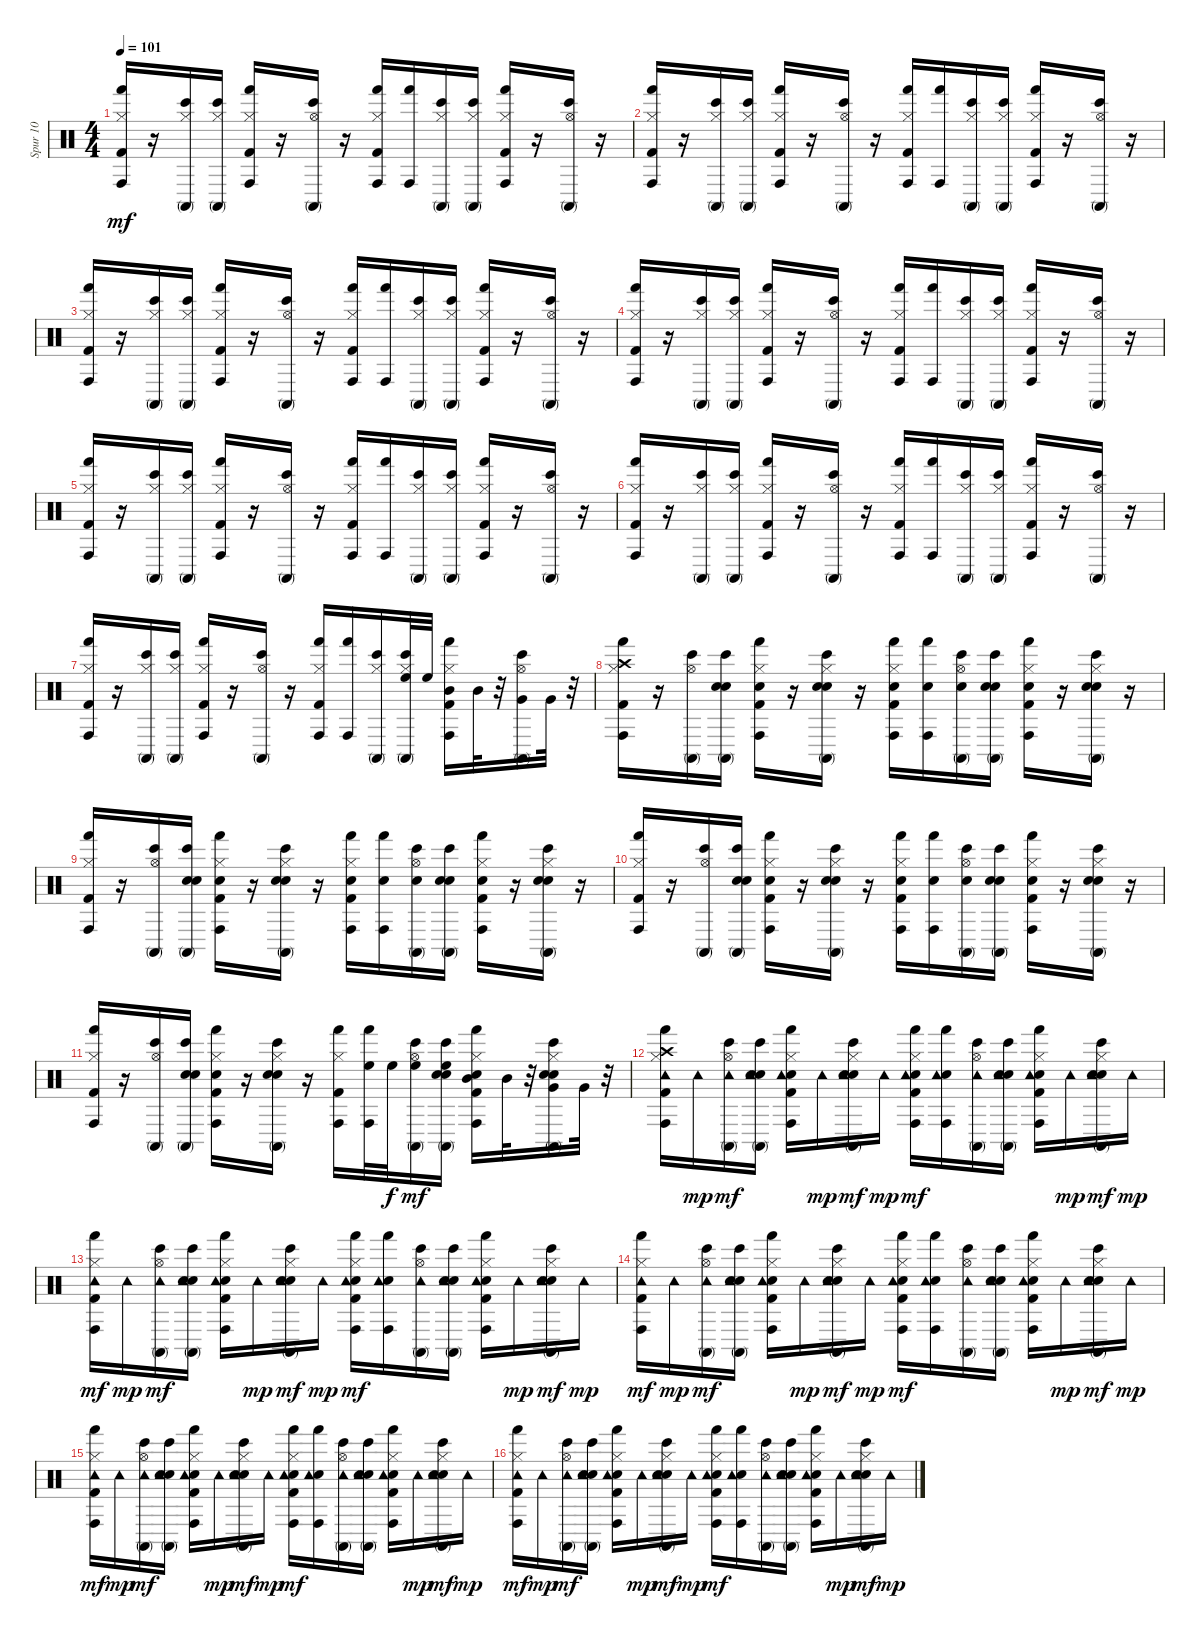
\track ("Spur 10" "Spur 10") {instrument percussion}
\staff {score}
\articulation defaults
\ts (4 4)
\tempo 101
\clef neutral
\ks c
("Kick (hit) 2" "Hi-Hat (closed)" "Hand (hit)" "Conga high (hit)").16{dy mf} r.16 ("Hi-Hat (closed)" "Bongo High (hit)" "Conga high (mute)").16 ("Hi-Hat (closed)" "Bongo High (hit)" "Conga high (mute)").16 ("Kick (hit) 2" "Hi-Hat (closed)" "Hand (hit)" "Conga high (hit)").16 r.16 ("Hi-Hat (open)" "Bongo High (hit)" "Conga high (mute)").16 r.16 ("Kick (hit) 2" "Hi-Hat (closed)" "Hand (hit)" "Conga high (hit)").16 ("Hand (hit)" "Conga high (hit)").16 ("Hi-Hat (closed)" "Bongo High (hit)" "Conga high (mute)").16 ("Hi-Hat (closed)" "Bongo High (hit)" "Conga high (mute)").16 ("Kick (hit) 2" "Hi-Hat (closed)" "Hand (hit)" "Conga high (hit)").16 r.16 ("Hi-Hat (open)" "Bongo High (hit)" "Conga high (mute)").16 r.16 |
("Kick (hit) 2" "Hi-Hat (closed)" "Hand (hit)" "Conga high (hit)").16 r.16 ("Hi-Hat (closed)" "Bongo High (hit)" "Conga high (mute)").16 ("Hi-Hat (closed)" "Bongo High (hit)" "Conga high (mute)").16 ("Kick (hit) 2" "Hi-Hat (closed)" "Hand (hit)" "Conga high (hit)").16 r.16 ("Hi-Hat (open)" "Bongo High (hit)" "Conga high (mute)").16 r.16 ("Kick (hit) 2" "Hi-Hat (closed)" "Hand (hit)" "Conga high (hit)").16 ("Hand (hit)" "Conga high (hit)").16 ("Hi-Hat (closed)" "Bongo High (hit)" "Conga high (mute)").16 ("Hi-Hat (closed)" "Bongo High (hit)" "Conga high (mute)").16 ("Kick (hit) 2" "Hi-Hat (closed)" "Hand (hit)" "Conga high (hit)").16 r.16 ("Hi-Hat (open)" "Bongo High (hit)" "Conga high (mute)").16 r.16 |
("Kick (hit) 2" "Hi-Hat (closed)" "Hand (hit)" "Conga high (hit)").16 r.16 ("Hi-Hat (closed)" "Bongo High (hit)" "Conga high (mute)").16 ("Hi-Hat (closed)" "Bongo High (hit)" "Conga high (mute)").16 ("Kick (hit) 2" "Hi-Hat (closed)" "Hand (hit)" "Conga high (hit)").16 r.16 ("Hi-Hat (open)" "Bongo High (hit)" "Conga high (mute)").16 r.16 ("Kick (hit) 2" "Hi-Hat (closed)" "Hand (hit)" "Conga high (hit)").16 ("Hand (hit)" "Conga high (hit)").16 ("Hi-Hat (closed)" "Bongo High (hit)" "Conga high (mute)").16 ("Hi-Hat (closed)" "Bongo High (hit)" "Conga high (mute)").16 ("Kick (hit) 2" "Hi-Hat (closed)" "Hand (hit)" "Conga high (hit)").16 r.16 ("Hi-Hat (open)" "Bongo High (hit)" "Conga high (mute)").16 r.16 |
("Kick (hit) 2" "Hi-Hat (closed)" "Hand (hit)" "Conga high (hit)").16 r.16 ("Hi-Hat (closed)" "Bongo High (hit)" "Conga high (mute)").16 ("Hi-Hat (closed)" "Bongo High (hit)" "Conga high (mute)").16 ("Kick (hit) 2" "Hi-Hat (closed)" "Hand (hit)" "Conga high (hit)").16 r.16 ("Hi-Hat (open)" "Bongo High (hit)" "Conga high (mute)").16 r.16 ("Kick (hit) 2" "Hi-Hat (closed)" "Hand (hit)" "Conga high (hit)").16 ("Hand (hit)" "Conga high (hit)").16 ("Hi-Hat (closed)" "Bongo High (hit)" "Conga high (mute)").16 ("Hi-Hat (closed)" "Bongo High (hit)" "Conga high (mute)").16 ("Kick (hit) 2" "Hi-Hat (closed)" "Hand (hit)" "Conga high (hit)").16 r.16 ("Hi-Hat (open)" "Bongo High (hit)" "Conga high (mute)").16 r.16 |
("Kick (hit) 2" "Hi-Hat (closed)" "Hand (hit)" "Conga high (hit)").16 r.16 ("Hi-Hat (closed)" "Bongo High (hit)" "Conga high (mute)").16 ("Hi-Hat (closed)" "Bongo High (hit)" "Conga high (mute)").16 ("Kick (hit) 2" "Hi-Hat (closed)" "Hand (hit)" "Conga high (hit)").16 r.16 ("Hi-Hat (open)" "Bongo High (hit)" "Conga high (mute)").16 r.16 ("Kick (hit) 2" "Hi-Hat (closed)" "Hand (hit)" "Conga high (hit)").16 ("Hand (hit)" "Conga high (hit)").16 ("Hi-Hat (closed)" "Bongo High (hit)" "Conga high (mute)").16 ("Hi-Hat (closed)" "Bongo High (hit)" "Conga high (mute)").16 ("Kick (hit) 2" "Hi-Hat (closed)" "Hand (hit)" "Conga high (hit)").16 r.16 ("Hi-Hat (open)" "Bongo High (hit)" "Conga high (mute)").16 r.16 |
("Kick (hit) 2" "Hi-Hat (closed)" "Hand (hit)" "Conga high (hit)").16 r.16 ("Hi-Hat (closed)" "Bongo High (hit)" "Conga high (mute)").16 ("Hi-Hat (closed)" "Bongo High (hit)" "Conga high (mute)").16 ("Kick (hit) 2" "Hi-Hat (closed)" "Hand (hit)" "Conga high (hit)").16 r.16 ("Hi-Hat (open)" "Bongo High (hit)" "Conga high (mute)").16 r.16 ("Kick (hit) 2" "Hi-Hat (closed)" "Hand (hit)" "Conga high (hit)").16 ("Hand (hit)" "Conga high (hit)").16 ("Hi-Hat (closed)" "Bongo High (hit)" "Conga high (mute)").16 ("Hi-Hat (closed)" "Bongo High (hit)" "Conga high (mute)").16 ("Kick (hit) 2" "Hi-Hat (closed)" "Hand (hit)" "Conga high (hit)").16 r.16 ("Hi-Hat (open)" "Bongo High (hit)" "Conga high (mute)").16 r.16 |
("Kick (hit) 2" "Hi-Hat (closed)" "Hand (hit)" "Conga high (hit)").16 r.16 ("Hi-Hat (closed)" "Bongo High (hit)" "Conga high (mute)").16 ("Hi-Hat (closed)" "Bongo High (hit)" "Conga high (mute)").16 ("Kick (hit) 2" "Hi-Hat (closed)" "Hand (hit)" "Conga high (hit)").16 r.16 ("Hi-Hat (open)" "Bongo High (hit)" "Conga high (mute)").16 r.16 ("Kick (hit) 2" "Hi-Hat (closed)" "Hand (hit)" "Conga high (hit)").16 ("Hand (hit)" "Conga high (hit)").16 ("Hi-Hat (closed)" "Bongo High (hit)" "Conga high (mute)").16 ("Hi-Hat (closed)" "High Floor Tom (hit)" "Bongo High (hit)" "Conga high (mute)").32 "High Floor Tom (hit)".32 ("Kick (hit) 2" "Hi-Hat (closed)" "Mid Tom (hit)" "Hand (hit)" "Conga high (hit)").16 "Mid Tom (hit)".32 r.32 ("Hi-Hat (open)" "Very Low Tom (hit)" "Bongo High (hit)" "Conga high (mute)").16 "Very Low Tom (hit)".32 r.32 |
("Kick (hit) 2" "Hi-Hat (closed)" "Crash high (hit)" "Hand (hit)" "Conga high (hit)").16 r.16 ("Hi-Hat (open)" "Bongo High (hit)" "Conga high (mute)").16 ("Snare (hit) 2" "Hand Clap (hit)" "Bongo High (hit)" "Conga high (mute)").16 ("Kick (hit) 2" "Hi-Hat (closed)" "Hand Clap (hit)" "Hand (hit)" "Conga high (hit)").16 r.16 ("Snare (hit) 2" "Hi-Hat (closed)" "Hand Clap (hit)" "Bongo High (hit)" "Conga high (mute)").16 r.16 ("Kick (hit) 2" "Hi-Hat (closed)" "Hand Clap (hit)" "Hand (hit)" "Conga high (hit)").16 ("Hand Clap (hit)" "Hand (hit)" "Conga high (hit)").16 ("Hi-Hat (open)" "Hand Clap (hit)" "Bongo High (hit)" "Conga high (mute)").16 ("Snare (hit) 2" "Hand Clap (hit)" "Bongo High (hit)" "Conga high (mute)").16 ("Kick (hit) 2" "Hi-Hat (closed)" "Hand Clap (hit)" "Hand (hit)" "Conga high (hit)").16 r.16 ("Snare (hit) 2" "Hi-Hat (closed)" "Hand Clap (hit)" "Bongo High (hit)" "Conga high (mute)").16 r.16 |
("Kick (hit) 2" "Hi-Hat (closed)" "Hand (hit)" "Conga high (hit)").16 r.16 ("Hi-Hat (open)" "Bongo High (hit)" "Conga high (mute)").16 ("Snare (hit) 2" "Hand Clap (hit)" "Bongo High (hit)" "Conga high (mute)").16 ("Kick (hit) 2" "Hi-Hat (closed)" "Hand Clap (hit)" "Hand (hit)" "Conga high (hit)").16 r.16 ("Snare (hit) 2" "Hi-Hat (closed)" "Hand Clap (hit)" "Bongo High (hit)" "Conga high (mute)").16 r.16 ("Kick (hit) 2" "Hi-Hat (closed)" "Hand Clap (hit)" "Hand (hit)" "Conga high (hit)").16 ("Hand Clap (hit)" "Hand (hit)" "Conga high (hit)").16 ("Hi-Hat (open)" "Hand Clap (hit)" "Bongo High (hit)" "Conga high (mute)").16 ("Snare (hit) 2" "Hand Clap (hit)" "Bongo High (hit)" "Conga high (mute)").16 ("Kick (hit) 2" "Hi-Hat (closed)" "Hand Clap (hit)" "Hand (hit)" "Conga high (hit)").16 r.16 ("Snare (hit) 2" "Hi-Hat (closed)" "Hand Clap (hit)" "Bongo High (hit)" "Conga high (mute)").16 r.16 |
("Kick (hit) 2" "Hi-Hat (closed)" "Hand (hit)" "Conga high (hit)").16 r.16 ("Hi-Hat (open)" "Bongo High (hit)" "Conga high (mute)").16 ("Snare (hit) 2" "Hand Clap (hit)" "Bongo High (hit)" "Conga high (mute)").16 ("Kick (hit) 2" "Hi-Hat (closed)" "Hand Clap (hit)" "Hand (hit)" "Conga high (hit)").16 r.16 ("Snare (hit) 2" "Hi-Hat (closed)" "Hand Clap (hit)" "Bongo High (hit)" "Conga high (mute)").16 r.16 ("Kick (hit) 2" "Hi-Hat (closed)" "Hand Clap (hit)" "Hand (hit)" "Conga high (hit)").16 ("Hand Clap (hit)" "Hand (hit)" "Conga high (hit)").16 ("Hi-Hat (open)" "Hand Clap (hit)" "Bongo High (hit)" "Conga high (mute)").16 ("Snare (hit) 2" "Hand Clap (hit)" "Bongo High (hit)" "Conga high (mute)").16 ("Kick (hit) 2" "Hi-Hat (closed)" "Hand Clap (hit)" "Hand (hit)" "Conga high (hit)").16 r.16 ("Snare (hit) 2" "Hi-Hat (closed)" "Hand Clap (hit)" "Bongo High (hit)" "Conga high (mute)").16 r.16 |
("Kick (hit) 2" "Hi-Hat (closed)" "Hand (hit)" "Conga high (hit)").16 r.16 ("Hi-Hat (open)" "Bongo High (hit)" "Conga high (mute)").16 ("Snare (hit) 2" "Hand Clap (hit)" "Bongo High (hit)" "Conga high (mute)").16 ("Kick (hit) 2" "Hi-Hat (closed)" "Hand Clap (hit)" "Hand (hit)" "Conga high (hit)").16 r.16 ("Snare (hit) 2" "Hi-Hat (closed)" "Hand Clap (hit)" "Bongo High (hit)" "Conga high (mute)").16 r.16 ("Kick (hit) 2" "Hi-Hat (closed)" "Hand (hit)" "Conga high (hit)").16 ("High Floor Tom (hit)" "Hand (hit)" "Conga high (hit)").32 "High Floor Tom (hit)".32{dy f} ("Hi-Hat (open)" "High Floor Tom (hit)" "Bongo High (hit)" "Conga high (mute)").16{dy mf} ("Snare (hit) 2" "High Floor Tom (hit)" "Hand Clap (hit)" "Bongo High (hit)" "Conga high (mute)").16 ("Kick (hit) 2" "Hi-Hat (closed)" "Mid Tom (hit)" "Hand Clap (hit)" "Hand (hit)" "Conga high (hit)").16 "Mid Tom (hit)".32 r.32 ("Snare (hit) 2" "Hi-Hat (closed)" "Very Low Tom (hit)" "Hand Clap (hit)" "Bongo High (hit)" "Conga high (mute)").16 "Very Low Tom (hit)".32 r.32 |
("Kick (hit) 2" "Hi-Hat (closed)" "Crash high (hit)" "Hand (hit)" "Tambourine (hit)" "Conga high (hit)").16 "Tambourine (hit)".16{dy mp} ("Hi-Hat (open)" "Bongo High (hit)" "Tambourine (hit)" "Conga high (mute)").16{dy mf} ("Snare (hit) 2" "Hand Clap (hit)" "Bongo High (hit)" "Tambourine (hit)" "Conga high (mute)").16 ("Kick (hit) 2" "Hi-Hat (closed)" "Hand Clap (hit)" "Hand (hit)" "Tambourine (hit)" "Conga high (hit)").16 "Tambourine (hit)".16{dy mp} ("Snare (hit) 2" "Hi-Hat (closed)" "Hand Clap (hit)" "Bongo High (hit)" "Tambourine (hit)" "Conga high (mute)").16{dy mf} "Tambourine (hit)".16{dy mp} ("Kick (hit) 2" "Hi-Hat (closed)" "Hand Clap (hit)" "Hand (hit)" "Tambourine (hit)" "Conga high (hit)").16{dy mf} ("Hand Clap (hit)" "Hand (hit)" "Tambourine (hit)" "Conga high (hit)").16 ("Hi-Hat (open)" "Bongo High (hit)" "Tambourine (hit)" "Conga high (mute)").16 ("Snare (hit) 2" "Hand Clap (hit)" "Bongo High (hit)" "Tambourine (hit)" "Conga high (mute)").16 ("Kick (hit) 2" "Hi-Hat (closed)" "Hand Clap (hit)" "Hand (hit)" "Tambourine (hit)" "Conga high (hit)").16 "Tambourine (hit)".16{dy mp} ("Snare (hit) 2" "Hi-Hat (closed)" "Hand Clap (hit)" "Bongo High (hit)" "Tambourine (hit)" "Conga high (mute)").16{dy mf} "Tambourine (hit)".16{dy mp} |
("Kick (hit) 2" "Hi-Hat (closed)" "Hand (hit)" "Tambourine (hit)" "Conga high (hit)").16{dy mf} "Tambourine (hit)".16{dy mp} ("Hi-Hat (open)" "Bongo High (hit)" "Tambourine (hit)" "Conga high (mute)").16{dy mf} ("Snare (hit) 2" "Hand Clap (hit)" "Bongo High (hit)" "Tambourine (hit)" "Conga high (mute)").16 ("Kick (hit) 2" "Hi-Hat (closed)" "Hand Clap (hit)" "Hand (hit)" "Tambourine (hit)" "Conga high (hit)").16 "Tambourine (hit)".16{dy mp} ("Snare (hit) 2" "Hi-Hat (closed)" "Hand Clap (hit)" "Bongo High (hit)" "Tambourine (hit)" "Conga high (mute)").16{dy mf} "Tambourine (hit)".16{dy mp} ("Kick (hit) 2" "Hi-Hat (closed)" "Hand Clap (hit)" "Hand (hit)" "Tambourine (hit)" "Conga high (hit)").16{dy mf} ("Hand Clap (hit)" "Hand (hit)" "Tambourine (hit)" "Conga high (hit)").16 ("Hi-Hat (open)" "Bongo High (hit)" "Tambourine (hit)" "Conga high (mute)").16 ("Snare (hit) 2" "Hand Clap (hit)" "Bongo High (hit)" "Tambourine (hit)" "Conga high (mute)").16 ("Kick (hit) 2" "Hi-Hat (closed)" "Hand Clap (hit)" "Hand (hit)" "Tambourine (hit)" "Conga high (hit)").16 "Tambourine (hit)".16{dy mp} ("Snare (hit) 2" "Hi-Hat (closed)" "Hand Clap (hit)" "Bongo High (hit)" "Tambourine (hit)" "Conga high (mute)").16{dy mf} "Tambourine (hit)".16{dy mp} |
("Kick (hit) 2" "Hi-Hat (closed)" "Hand (hit)" "Tambourine (hit)" "Conga high (hit)").16{dy mf} "Tambourine (hit)".16{dy mp} ("Hi-Hat (open)" "Bongo High (hit)" "Tambourine (hit)" "Conga high (mute)").16{dy mf} ("Snare (hit) 2" "Hand Clap (hit)" "Bongo High (hit)" "Tambourine (hit)" "Conga high (mute)").16 ("Kick (hit) 2" "Hi-Hat (closed)" "Hand Clap (hit)" "Hand (hit)" "Tambourine (hit)" "Conga high (hit)").16 "Tambourine (hit)".16{dy mp} ("Snare (hit) 2" "Hi-Hat (closed)" "Hand Clap (hit)" "Bongo High (hit)" "Tambourine (hit)" "Conga high (mute)").16{dy mf} "Tambourine (hit)".16{dy mp} ("Kick (hit) 2" "Hi-Hat (closed)" "Hand Clap (hit)" "Hand (hit)" "Tambourine (hit)" "Conga high (hit)").16{dy mf} ("Hand Clap (hit)" "Hand (hit)" "Tambourine (hit)" "Conga high (hit)").16 ("Hi-Hat (open)" "Bongo High (hit)" "Tambourine (hit)" "Conga high (mute)").16 ("Snare (hit) 2" "Hand Clap (hit)" "Bongo High (hit)" "Tambourine (hit)" "Conga high (mute)").16 ("Kick (hit) 2" "Hi-Hat (closed)" "Hand Clap (hit)" "Hand (hit)" "Tambourine (hit)" "Conga high (hit)").16 "Tambourine (hit)".16{dy mp} ("Snare (hit) 2" "Hi-Hat (closed)" "Hand Clap (hit)" "Bongo High (hit)" "Tambourine (hit)" "Conga high (mute)").16{dy mf} "Tambourine (hit)".16{dy mp} |
("Kick (hit) 2" "Hi-Hat (closed)" "Hand (hit)" "Tambourine (hit)" "Conga high (hit)").16{dy mf} "Tambourine (hit)".16{dy mp} ("Hi-Hat (open)" "Bongo High (hit)" "Tambourine (hit)" "Conga high (mute)").16{dy mf} ("Snare (hit) 2" "Hand Clap (hit)" "Bongo High (hit)" "Tambourine (hit)" "Conga high (mute)").16 ("Kick (hit) 2" "Hi-Hat (closed)" "Hand Clap (hit)" "Hand (hit)" "Tambourine (hit)" "Conga high (hit)").16 "Tambourine (hit)".16{dy mp} ("Snare (hit) 2" "Hi-Hat (closed)" "Hand Clap (hit)" "Bongo High (hit)" "Tambourine (hit)" "Conga high (mute)").16{dy mf} "Tambourine (hit)".16{dy mp} ("Kick (hit) 2" "Hi-Hat (closed)" "Hand Clap (hit)" "Hand (hit)" "Tambourine (hit)" "Conga high (hit)").16{dy mf} ("Hand Clap (hit)" "Hand (hit)" "Tambourine (hit)" "Conga high (hit)").16 ("Hi-Hat (open)" "Bongo High (hit)" "Tambourine (hit)" "Conga high (mute)").16 ("Snare (hit) 2" "Hand Clap (hit)" "Bongo High (hit)" "Tambourine (hit)" "Conga high (mute)").16 ("Kick (hit) 2" "Hi-Hat (closed)" "Hand Clap (hit)" "Hand (hit)" "Tambourine (hit)" "Conga high (hit)").16 "Tambourine (hit)".16{dy mp} ("Snare (hit) 2" "Hi-Hat (closed)" "Hand Clap (hit)" "Bongo High (hit)" "Tambourine (hit)" "Conga high (mute)").16{dy mf} "Tambourine (hit)".16{dy mp} |
("Kick (hit) 2" "Hi-Hat (closed)" "Hand (hit)" "Tambourine (hit)" "Conga high (hit)").16{dy mf} "Tambourine (hit)".16{dy mp} ("Hi-Hat (open)" "Bongo High (hit)" "Tambourine (hit)" "Conga high (mute)").16{dy mf} ("Snare (hit) 2" "Hand Clap (hit)" "Bongo High (hit)" "Tambourine (hit)" "Conga high (mute)").16 ("Kick (hit) 2" "Hi-Hat (closed)" "Hand Clap (hit)" "Hand (hit)" "Tambourine (hit)" "Conga high (hit)").16 "Tambourine (hit)".16{dy mp} ("Snare (hit) 2" "Hi-Hat (closed)" "Hand Clap (hit)" "Bongo High (hit)" "Tambourine (hit)" "Conga high (mute)").16{dy mf} "Tambourine (hit)".16{dy mp} ("Kick (hit) 2" "Hi-Hat (closed)" "Hand Clap (hit)" "Hand (hit)" "Tambourine (hit)" "Conga high (hit)").16{dy mf} ("Hand Clap (hit)" "Hand (hit)" "Tambourine (hit)" "Conga high (hit)").16 ("Hi-Hat (open)" "Bongo High (hit)" "Tambourine (hit)" "Conga high (mute)").16 ("Snare (hit) 2" "Hand Clap (hit)" "Bongo High (hit)" "Tambourine (hit)" "Conga high (mute)").16 ("Kick (hit) 2" "Hi-Hat (closed)" "Hand Clap (hit)" "Hand (hit)" "Tambourine (hit)" "Conga high (hit)").16 "Tambourine (hit)".16{dy mp} ("Snare (hit) 2" "Hi-Hat (closed)" "Hand Clap (hit)" "Bongo High (hit)" "Tambourine (hit)" "Conga high (mute)").16{dy mf} "Tambourine (hit)".16{dy mp}
